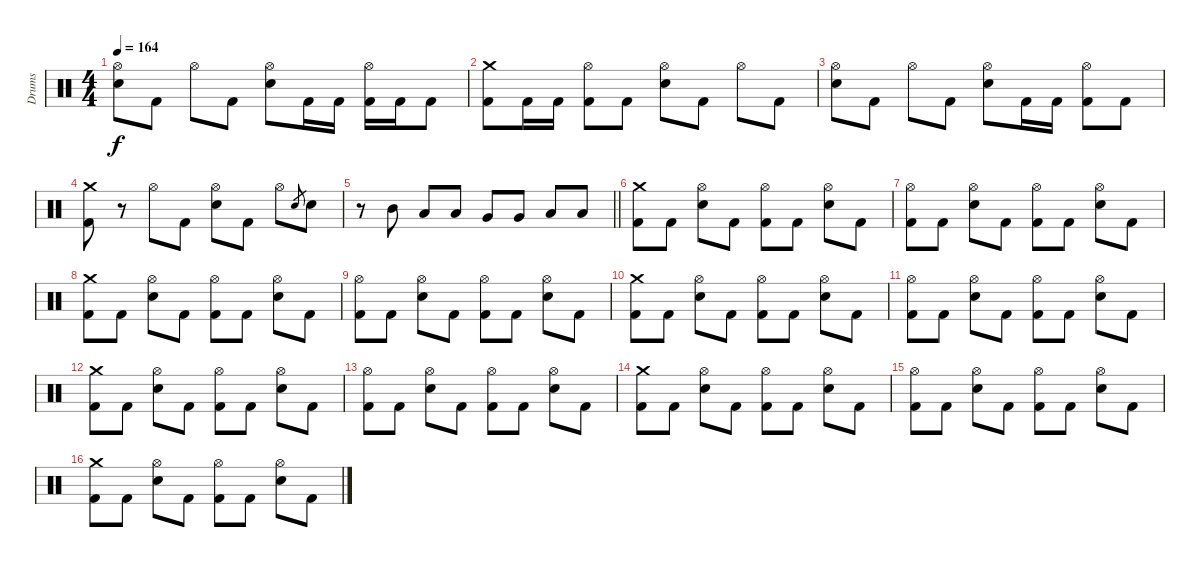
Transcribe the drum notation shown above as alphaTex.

\track ("Drums" "Drums") {instrument percussion}
\staff {score}
\articulation defaults
\ts (4 4)
\tempo 164
\clef neutral
\ks c
("Hi-Hat (open)" "Electric Snare (hit)").8{dy f} "Kick (hit) 2".8 "Hi-Hat (open)".8 "Kick (hit) 2".8 ("Hi-Hat (open)" "Electric Snare (hit)").8 "Kick (hit) 2".16 "Kick (hit) 2".16 ("Hi-Hat (open)" "Kick (hit) 2").16 "Kick (hit) 2".16 "Kick (hit) 2".8 |
("Crash medium (hit)" "Kick (hit) 2").8 "Kick (hit) 2".16 "Kick (hit) 2".16 ("Hi-Hat (open)" "Kick (hit) 2").8 "Kick (hit) 2".8 ("Hi-Hat (open)" "Electric Snare (hit)").8 "Kick (hit) 2".8 "Hi-Hat (open)".8 "Kick (hit) 2".8 |
("Hi-Hat (open)" "Electric Snare (hit)").8 "Kick (hit) 2".8 "Hi-Hat (open)".8 "Kick (hit) 2".8 ("Hi-Hat (open)" "Electric Snare (hit)").8 "Kick (hit) 2".16 "Kick (hit) 2".16 ("Hi-Hat (open)" "Kick (hit) 2").8 "Kick (hit) 2".8 |
("Crash medium (hit)" "Kick (hit) 2").8 r.8 "Hi-Hat (open)".8 "Kick (hit) 2".8 ("Hi-Hat (open)" "Electric Snare (hit)").8 "Kick (hit) 2".8 "Hi-Hat (open)".8 "Electric Snare (hit)".8{gr} "Electric Snare (hit)".8 |
\barLineRight lightlight
r.8 "Mid Tom (hit)".8 "Low Tom (hit)".8 "Low Tom (hit)".8 "Very Low Tom (hit)".8 "Very Low Tom (hit)".8 "Low Floor Tom (hit)".8 "Low Floor Tom (hit)".8 |
("Crash medium (hit)" "Kick (hit) 2").8 "Kick (hit) 2".8 ("Hi-Hat (open)" "Electric Snare (hit)").8 "Kick (hit) 2".8 ("Hi-Hat (open)" "Kick (hit) 2").8 "Kick (hit) 2".8 ("Hi-Hat (open)" "Electric Snare (hit)").8 "Kick (hit) 2".8 |
("Hi-Hat (open)" "Kick (hit) 2").8 "Kick (hit) 2".8 ("Hi-Hat (open)" "Electric Snare (hit)").8 "Kick (hit) 2".8 ("Hi-Hat (open)" "Kick (hit) 2").8 "Kick (hit) 2".8 ("Hi-Hat (open)" "Electric Snare (hit)").8 "Kick (hit) 2".8 |
("Crash medium (hit)" "Kick (hit) 2").8 "Kick (hit) 2".8 ("Hi-Hat (open)" "Electric Snare (hit)").8 "Kick (hit) 2".8 ("Hi-Hat (open)" "Kick (hit) 2").8 "Kick (hit) 2".8 ("Hi-Hat (open)" "Electric Snare (hit)").8 "Kick (hit) 2".8 |
("Hi-Hat (open)" "Kick (hit) 2").8 "Kick (hit) 2".8 ("Hi-Hat (open)" "Electric Snare (hit)").8 "Kick (hit) 2".8 ("Hi-Hat (open)" "Kick (hit) 2").8 "Kick (hit) 2".8 ("Hi-Hat (open)" "Electric Snare (hit)").8 "Kick (hit) 2".8 |
("Crash medium (hit)" "Kick (hit) 2").8 "Kick (hit) 2".8 ("Hi-Hat (open)" "Electric Snare (hit)").8 "Kick (hit) 2".8 ("Hi-Hat (open)" "Kick (hit) 2").8 "Kick (hit) 2".8 ("Hi-Hat (open)" "Electric Snare (hit)").8 "Kick (hit) 2".8 |
("Hi-Hat (open)" "Kick (hit) 2").8 "Kick (hit) 2".8 ("Hi-Hat (open)" "Electric Snare (hit)").8 "Kick (hit) 2".8 ("Hi-Hat (open)" "Kick (hit) 2").8 "Kick (hit) 2".8 ("Hi-Hat (open)" "Electric Snare (hit)").8 "Kick (hit) 2".8 |
("Crash medium (hit)" "Kick (hit) 2").8 "Kick (hit) 2".8 ("Hi-Hat (open)" "Electric Snare (hit)").8 "Kick (hit) 2".8 ("Hi-Hat (open)" "Kick (hit) 2").8 "Kick (hit) 2".8 ("Hi-Hat (open)" "Electric Snare (hit)").8 "Kick (hit) 2".8 |
("Hi-Hat (open)" "Kick (hit) 2").8 "Kick (hit) 2".8 ("Hi-Hat (open)" "Electric Snare (hit)").8 "Kick (hit) 2".8 ("Hi-Hat (open)" "Kick (hit) 2").8 "Kick (hit) 2".8 ("Hi-Hat (open)" "Electric Snare (hit)").8 "Kick (hit) 2".8 |
("Crash medium (hit)" "Kick (hit) 2").8 "Kick (hit) 2".8 ("Hi-Hat (open)" "Electric Snare (hit)").8 "Kick (hit) 2".8 ("Hi-Hat (open)" "Kick (hit) 2").8 "Kick (hit) 2".8 ("Hi-Hat (open)" "Electric Snare (hit)").8 "Kick (hit) 2".8 |
("Hi-Hat (open)" "Kick (hit) 2").8 "Kick (hit) 2".8 ("Hi-Hat (open)" "Electric Snare (hit)").8 "Kick (hit) 2".8 ("Hi-Hat (open)" "Kick (hit) 2").8 "Kick (hit) 2".8 ("Hi-Hat (open)" "Electric Snare (hit)").8 "Kick (hit) 2".8 |
("Crash medium (hit)" "Kick (hit) 2").8 "Kick (hit) 2".8 ("Hi-Hat (open)" "Electric Snare (hit)").8 "Kick (hit) 2".8 ("Hi-Hat (open)" "Kick (hit) 2").8 "Kick (hit) 2".8 ("Hi-Hat (open)" "Electric Snare (hit)").8 "Kick (hit) 2".8
